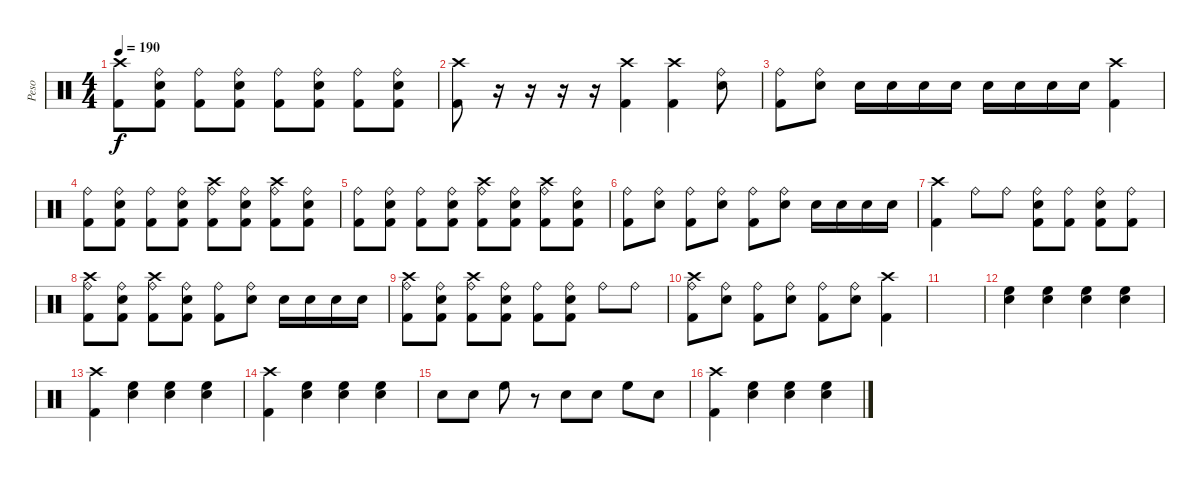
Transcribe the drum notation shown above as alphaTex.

\track ("Peso" "Peso") {instrument percussion}
\staff {score}
\articulation defaults
\ts (4 4)
\tempo 190
\clef neutral
\ks c
("Crash high (hit)" "Kick (hit) 2").8{dy f} ("Ride (bell)" "Snare (hit) 2" "Kick (hit) 2").8 ("Ride (bell)" "Kick (hit) 2").8 ("Ride (bell)" "Snare (hit) 2" "Kick (hit) 2").8 ("Ride (bell)" "Kick (hit) 2").8 ("Ride (bell)" "Snare (hit) 2" "Kick (hit) 2").8 ("Ride (bell)" "Kick (hit) 2").8 ("Ride (bell)" "Snare (hit) 2" "Kick (hit) 2").8 |
("Crash high (hit)" "Kick (hit) 2").8 r.16 r.16 r.16 r.16 ("Crash high (hit)" "Kick (hit) 2").4 ("Crash high (hit)" "Kick (hit) 2").4 ("Ride (bell)" "Snare (hit) 2").8 |
("Ride (bell)" "Kick (hit) 2").8 ("Ride (bell)" "Snare (hit) 2").8 "Snare (hit) 2".16 "Snare (hit) 2".16 "Snare (hit) 2".16 "Snare (hit) 2".16 "Snare (hit) 2".16 "Snare (hit) 2".16 "Snare (hit) 2".16 "Snare (hit) 2".16 ("Crash high (hit)" "Kick (hit) 2").4 |
("Ride (bell)" "Kick (hit) 2").8 ("Ride (bell)" "Snare (hit) 2" "Kick (hit) 2").8 ("Ride (bell)" "Kick (hit) 2").8 ("Ride (bell)" "Snare (hit) 2" "Kick (hit) 2").8 ("Crash high (hit)" "Ride (bell)" "Kick (hit) 2").8 ("Ride (bell)" "Snare (hit) 2" "Kick (hit) 2").8 ("Crash high (hit)" "Ride (bell)" "Kick (hit) 2").8 ("Ride (bell)" "Snare (hit) 2" "Kick (hit) 2").8 |
("Ride (bell)" "Kick (hit) 2").8 ("Ride (bell)" "Snare (hit) 2" "Kick (hit) 2").8 ("Ride (bell)" "Kick (hit) 2").8 ("Ride (bell)" "Snare (hit) 2" "Kick (hit) 2").8 ("Crash high (hit)" "Ride (bell)" "Kick (hit) 2").8 ("Ride (bell)" "Snare (hit) 2" "Kick (hit) 2").8 ("Crash high (hit)" "Ride (bell)" "Kick (hit) 2").8 ("Ride (bell)" "Snare (hit) 2" "Kick (hit) 2").8 |
("Ride (bell)" "Kick (hit) 2").8 ("Ride (bell)" "Snare (hit) 2").8 ("Ride (bell)" "Kick (hit) 2").8 ("Ride (bell)" "Snare (hit) 2").8 ("Ride (bell)" "Kick (hit) 2").8 ("Ride (bell)" "Snare (hit) 2").8 "Snare (hit) 2".16 "Snare (hit) 2".16 "Snare (hit) 2".16 "Snare (hit) 2".16 |
("Crash high (hit)" "Kick (hit) 2").4 "Ride (bell)"{x}.8 "Ride (bell)"{x}.8 ("Ride (bell)" "Snare (hit) 2" "Kick (hit) 2").8 ("Ride (bell)" "Kick (hit) 2").8 ("Ride (bell)" "Snare (hit) 2" "Kick (hit) 2").8 ("Ride (bell)" "Kick (hit) 2").8 |
("Crash high (hit)" "Ride (bell)" "Kick (hit) 2").8 ("Ride (bell)" "Snare (hit) 2" "Kick (hit) 2").8 ("Crash high (hit)" "Ride (bell)" "Kick (hit) 2").8 ("Ride (bell)" "Snare (hit) 2" "Kick (hit) 2").8 ("Ride (bell)" "Kick (hit) 2").8 ("Ride (bell)" "Snare (hit) 2").8 "Snare (hit) 2".16 "Snare (hit) 2".16 "Snare (hit) 2".16 "Snare (hit) 2".16 |
("Crash high (hit)" "Ride (bell)" "Kick (hit) 2").8 ("Ride (bell)" "Snare (hit) 2" "Kick (hit) 2").8 ("Crash high (hit)" "Ride (bell)" "Kick (hit) 2").8 ("Ride (bell)" "Snare (hit) 2" "Kick (hit) 2").8 ("Ride (bell)" "Kick (hit) 2").8 ("Ride (bell)" "Snare (hit) 2" "Kick (hit) 2").8 "Ride (bell)".8 "Ride (bell)".8 |
("Crash high (hit)" "Ride (bell)" "Kick (hit) 2").8 ("Ride (bell)" "Snare (hit) 2").8 ("Ride (bell)" "Kick (hit) 2").8 ("Ride (bell)" "Snare (hit) 2").8 ("Ride (bell)" "Kick (hit) 2").8 ("Ride (bell)" "Snare (hit) 2").8 ("Crash high (hit)" "Kick (hit) 2").4 |
|
("High Floor Tom (hit)" "Snare (hit) 2").4 ("High Floor Tom (hit)" "Snare (hit) 2").4 ("High Floor Tom (hit)" "Snare (hit) 2").4 ("High Floor Tom (hit)" "Snare (hit) 2").4 |
("Crash high (hit)" "Kick (hit) 2").4 ("High Floor Tom (hit)" "Snare (hit) 2").4 ("High Floor Tom (hit)" "Snare (hit) 2").4 ("High Floor Tom (hit)" "Snare (hit) 2").4 |
("Crash high (hit)" "Kick (hit) 2").4 ("High Floor Tom (hit)" "Snare (hit) 2").4 ("High Floor Tom (hit)" "Snare (hit) 2").4 ("High Floor Tom (hit)" "Snare (hit) 2").4 |
"Snare (hit) 2".8 "Snare (hit) 2".8 "High Floor Tom (hit)".8 r.8 "Snare (hit) 2".8 "Snare (hit) 2".8 "High Floor Tom (hit)".8 "Snare (hit)"{x}.8 |
("Crash high (hit)" "Kick (hit) 2").4 ("High Floor Tom (hit)" "Snare (hit) 2").4 ("High Floor Tom (hit)" "Snare (hit) 2").4 ("High Floor Tom (hit)" "Snare (hit) 2").4
